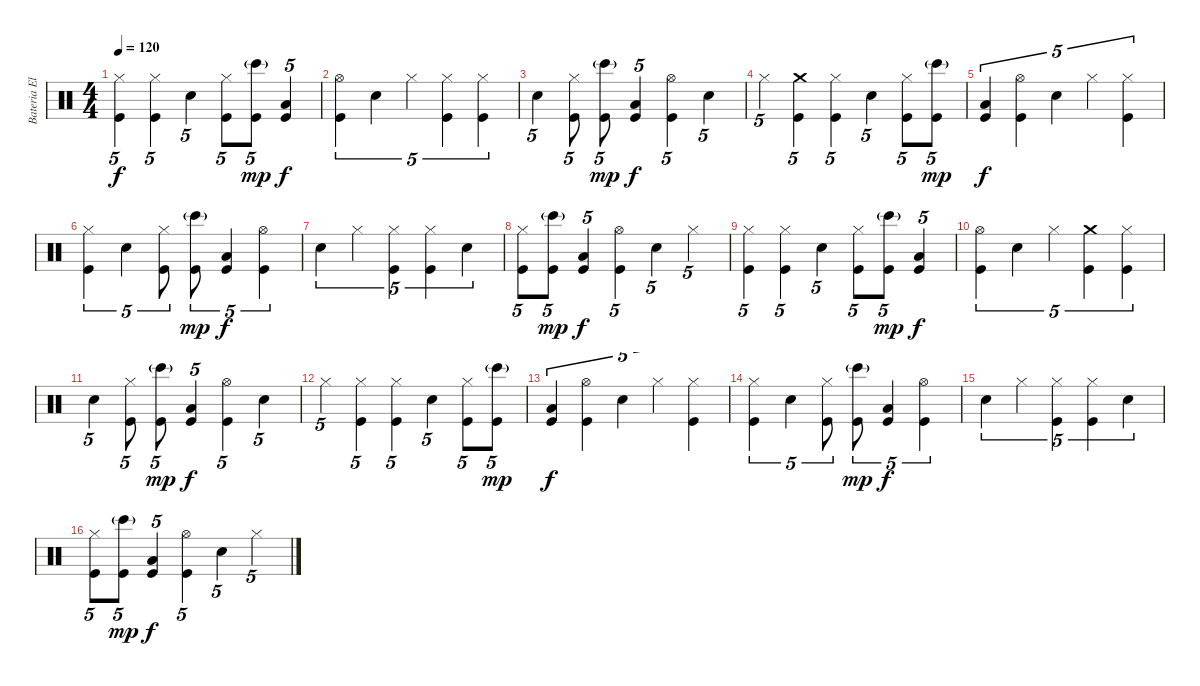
\track ("Bateria Eletrônica" "Bateria El") {instrument percussion}
\staff {score}
\articulation defaults
\ts (4 4)
\tempo 120
\clef neutral
\ks c
("Kick (hit)" "Hi-Hat (closed)").4{tu (5 4) dy f} ("Kick (hit)" "Hi-Hat (closed)").4{tu (5 4)} "Snare (hit) 2".4{tu (5 4)} ("Kick (hit)" "Hi-Hat (closed)").8{tu (5 4)} ("Kick (hit)" "Bongo High (hit)"{g}).8{tu (5 4) dy mp} ("Kick (hit)" "Low Tom (hit)").4{tu (5 4) dy f} |
("Kick (hit)" "Hi-Hat (open)").4{tu (5 4)} "Snare (hit) 2".4{tu (5 4)} "Hi-Hat (closed)".4{tu (5 4)} ("Kick (hit)" "Hi-Hat (closed)").4{tu (5 4)} ("Kick (hit)" "Hi-Hat (closed)").4{tu (5 4)} |
"Snare (hit) 2".4{tu (5 4)} ("Kick (hit)" "Hi-Hat (closed)").8{tu (5 4)} ("Kick (hit)" "Bongo High (hit)"{g}).8{tu (5 4) dy mp} ("Kick (hit)" "Low Tom (hit)").4{tu (5 4) dy f} ("Kick (hit)" "Hi-Hat (open)").4{tu (5 4)} "Snare (hit) 2".4{tu (5 4)} |
"Hi-Hat (closed)".4{tu (5 4)} ("Kick (hit)" "Crash medium (hit)").4{tu (5 4)} ("Kick (hit)" "Hi-Hat (closed)").4{tu (5 4)} "Snare (hit) 2".4{tu (5 4)} ("Kick (hit)" "Hi-Hat (closed)").8{tu (5 4)} ("Kick (hit)" "Bongo High (hit)"{g}).8{tu (5 4) dy mp} |
("Kick (hit)" "Low Tom (hit)").4{tu (5 4) dy f} ("Kick (hit)" "Hi-Hat (open)").4{tu (5 4)} "Snare (hit) 2".4{tu (5 4)} "Hi-Hat (closed)".4{tu (5 4)} ("Kick (hit)" "Hi-Hat (closed)").4{tu (5 4)} |
("Kick (hit)" "Hi-Hat (closed)").4{tu (5 4)} "Snare (hit) 2".4{tu (5 4)} ("Kick (hit)" "Hi-Hat (closed)").8{tu (5 4)} ("Kick (hit)" "Bongo High (hit)"{g}).8{tu (5 4) dy mp} ("Kick (hit)" "Low Tom (hit)").4{tu (5 4) dy f} ("Kick (hit)" "Hi-Hat (open)").4{tu (5 4)} |
"Snare (hit) 2".4{tu (5 4)} "Hi-Hat (closed)".4{tu (5 4)} ("Kick (hit)" "Hi-Hat (closed)").4{tu (5 4)} ("Kick (hit)" "Hi-Hat (closed)").4{tu (5 4)} "Snare (hit) 2".4{tu (5 4)} |
("Kick (hit)" "Hi-Hat (closed)").8{tu (5 4)} ("Kick (hit)" "Bongo High (hit)"{g}).8{tu (5 4) dy mp} ("Kick (hit)" "Low Tom (hit)").4{tu (5 4) dy f} ("Kick (hit)" "Hi-Hat (open)").4{tu (5 4)} "Snare (hit) 2".4{tu (5 4)} "Hi-Hat (closed)".4{tu (5 4)} |
("Kick (hit)" "Hi-Hat (closed)").4{tu (5 4)} ("Kick (hit)" "Hi-Hat (closed)").4{tu (5 4)} "Snare (hit) 2".4{tu (5 4)} ("Kick (hit)" "Hi-Hat (closed)").8{tu (5 4)} ("Kick (hit)" "Bongo High (hit)"{g}).8{tu (5 4) dy mp} ("Kick (hit)" "Low Tom (hit)").4{tu (5 4) dy f} |
("Kick (hit)" "Hi-Hat (open)").4{tu (5 4)} "Snare (hit) 2".4{tu (5 4)} "Hi-Hat (closed)".4{tu (5 4)} ("Kick (hit)" "Crash medium (hit)").4{tu (5 4)} ("Kick (hit)" "Hi-Hat (closed)").4{tu (5 4)} |
"Snare (hit) 2".4{tu (5 4)} ("Kick (hit)" "Hi-Hat (closed)").8{tu (5 4)} ("Kick (hit)" "Bongo High (hit)"{g}).8{tu (5 4) dy mp} ("Kick (hit)" "Low Tom (hit)").4{tu (5 4) dy f} ("Kick (hit)" "Hi-Hat (open)").4{tu (5 4)} "Snare (hit) 2".4{tu (5 4)} |
"Hi-Hat (closed)".4{tu (5 4)} ("Kick (hit)" "Hi-Hat (closed)").4{tu (5 4)} ("Kick (hit)" "Hi-Hat (closed)").4{tu (5 4)} "Snare (hit) 2".4{tu (5 4)} ("Kick (hit)" "Hi-Hat (closed)").8{tu (5 4)} ("Kick (hit)" "Bongo High (hit)"{g}).8{tu (5 4) dy mp} |
("Kick (hit)" "Low Tom (hit)").4{tu (5 4) dy f} ("Kick (hit)" "Hi-Hat (open)").4{tu (5 4)} "Snare (hit) 2".4{tu (5 4)} "Hi-Hat (closed)".4{tu (5 4)} ("Kick (hit)" "Hi-Hat (closed)").4{tu (5 4)} |
("Kick (hit)" "Hi-Hat (closed)").4{tu (5 4)} "Snare (hit) 2".4{tu (5 4)} ("Kick (hit)" "Hi-Hat (closed)").8{tu (5 4)} ("Kick (hit)" "Bongo High (hit)"{g}).8{tu (5 4) dy mp} ("Kick (hit)" "Low Tom (hit)").4{tu (5 4) dy f} ("Kick (hit)" "Hi-Hat (open)").4{tu (5 4)} |
"Snare (hit) 2".4{tu (5 4)} "Hi-Hat (closed)".4{tu (5 4)} ("Kick (hit)" "Hi-Hat (closed)").4{tu (5 4)} ("Kick (hit)" "Hi-Hat (closed)").4{tu (5 4)} "Snare (hit) 2".4{tu (5 4)} |
("Kick (hit)" "Hi-Hat (closed)").8{tu (5 4)} ("Kick (hit)" "Bongo High (hit)"{g}).8{tu (5 4) dy mp} ("Kick (hit)" "Low Tom (hit)").4{tu (5 4) dy f} ("Kick (hit)" "Hi-Hat (open)").4{tu (5 4)} "Snare (hit) 2".4{tu (5 4)} "Hi-Hat (closed)".4{tu (5 4)}
